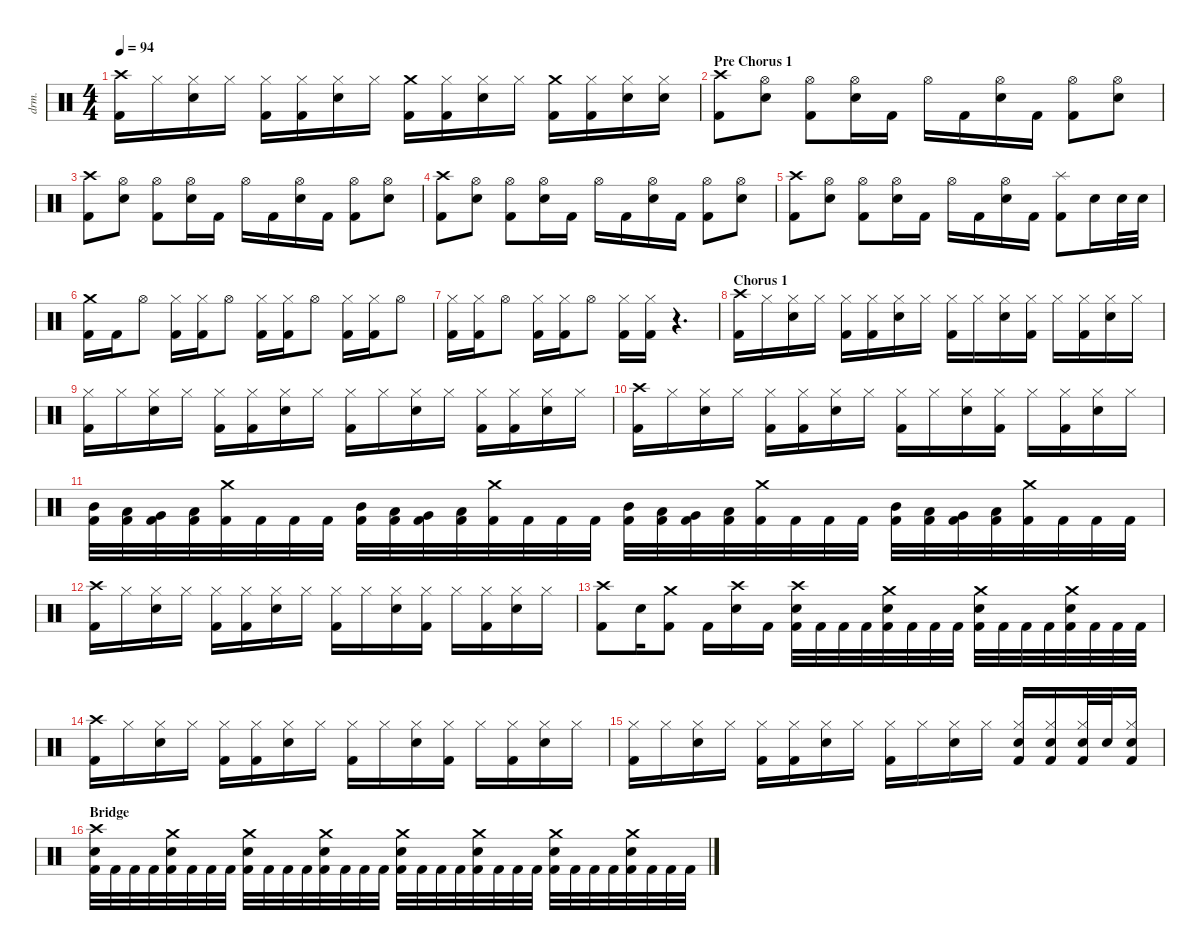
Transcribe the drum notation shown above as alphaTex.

\defaultSystemsLayout 4
\hideDynamics
\bracketExtendMode nobrackets
\track ("Drums" "drm.") {instrument percussion}
\staff {score}
\articulation defaults
\ts (4 4)
\tempo 94
\clef neutral
\ks c
("Crash high (hit)" "Kick (hit) 2").16{dy f} "Hi-Hat (closed)".16 ("Hi-Hat (closed)" "Snare (hit) 2").16 "Hi-Hat (closed)".16 ("Hi-Hat (closed)" "Kick (hit) 2").16 ("Hi-Hat (closed)" "Kick (hit) 2").16 ("Hi-Hat (closed)" "Snare (hit) 2").16 "Hi-Hat (closed)".16 ("Crash medium (hit)" "Kick (hit) 2").16 ("Hi-Hat (closed)" "Kick (hit) 2").16 ("Hi-Hat (closed)" "Snare (hit) 2").16 "Hi-Hat (closed)".16 ("Crash medium (hit)" "Kick (hit) 2").16 ("Hi-Hat (closed)" "Kick (hit) 2").16 ("Hi-Hat (closed)" "Snare (hit) 2").16 ("Hi-Hat (closed)" "Snare (hit) 2").16 |
\section ("" "Pre Chorus 1")
("Crash high (hit)" "Kick (hit) 2").8 ("Hi-Hat (open)" "Snare (hit) 2").8 ("Hi-Hat (open)" "Kick (hit) 2").8 ("Hi-Hat (open)" "Snare (hit) 2").16 "Kick (hit) 2".16 "Hi-Hat (open)".16 "Kick (hit) 2".16 ("Hi-Hat (open)" "Snare (hit) 2").16 "Kick (hit) 2".16 ("Hi-Hat (open)" "Kick (hit) 2").8 ("Hi-Hat (open)" "Snare (hit) 2").8 |
("Crash high (hit)" "Kick (hit) 2").8 ("Hi-Hat (open)" "Snare (hit) 2").8 ("Hi-Hat (open)" "Kick (hit) 2").8 ("Hi-Hat (open)" "Snare (hit) 2").16 "Kick (hit) 2".16 "Hi-Hat (open)".16 "Kick (hit) 2".16 ("Hi-Hat (open)" "Snare (hit) 2").16 "Kick (hit) 2".16 ("Hi-Hat (open)" "Kick (hit) 2").8 ("Hi-Hat (open)" "Snare (hit) 2").8 |
("Crash high (hit)" "Kick (hit) 2").8 ("Hi-Hat (open)" "Snare (hit) 2").8 ("Hi-Hat (open)" "Kick (hit) 2").8 ("Hi-Hat (open)" "Snare (hit) 2").16 "Kick (hit) 2".16 "Hi-Hat (open)".16 "Kick (hit) 2".16 ("Hi-Hat (open)" "Snare (hit) 2").16 "Kick (hit) 2".16 ("Hi-Hat (open)" "Kick (hit) 2").8 ("Hi-Hat (open)" "Snare (hit) 2").8 |
("Crash high (hit)" "Kick (hit) 2").8 ("Hi-Hat (open)" "Snare (hit) 2").8 ("Hi-Hat (open)" "Kick (hit) 2").8 ("Hi-Hat (open)" "Snare (hit) 2").16 "Kick (hit) 2".16 "Hi-Hat (open)".16 "Kick (hit) 2".16 ("Hi-Hat (open)" "Snare (hit) 2").16 "Kick (hit) 2".16 ("Splash (hit)" "Kick (hit) 2").8 "Snare (hit) 2".16 "Snare (hit) 2".32 "Snare (hit) 2".32 |
("Crash medium (hit)" "Kick (hit) 2").16 "Kick (hit) 2".16 "Hi-Hat (open)".8 ("Hi-Hat (closed)" "Kick (hit) 2").16 ("Hi-Hat (closed)" "Kick (hit) 2").16 "Hi-Hat (open)".8 ("Hi-Hat (closed)" "Kick (hit) 2").16 ("Hi-Hat (closed)" "Kick (hit) 2").16 "Hi-Hat (open)".8 ("Hi-Hat (closed)" "Kick (hit) 2").16 ("Hi-Hat (closed)" "Kick (hit) 2").16 "Hi-Hat (open)".8 |
("Hi-Hat (closed)" "Kick (hit) 2").16 ("Hi-Hat (closed)" "Kick (hit) 2").16 "Hi-Hat (open)".8 ("Hi-Hat (closed)" "Kick (hit) 2").16 ("Hi-Hat (closed)" "Kick (hit) 2").16 "Hi-Hat (open)".8 ("Hi-Hat (closed)" "Kick (hit) 2").16 ("Hi-Hat (closed)" "Kick (hit) 2").16 r.4{d} |
\section ("" "Chorus 1")
("Crash high (hit)" "Kick (hit) 2").16 "Hi-Hat (closed)".16 ("Hi-Hat (closed)" "Snare (hit) 2").16 "Hi-Hat (closed)".16 ("Hi-Hat (closed)" "Kick (hit) 2").16 ("Hi-Hat (closed)" "Kick (hit) 2").16 ("Hi-Hat (closed)" "Snare (hit) 2").16 "Hi-Hat (closed)".16 ("Hi-Hat (closed)" "Kick (hit) 2").16 "Hi-Hat (closed)".16 ("Hi-Hat (closed)" "Snare (hit) 2").16 ("Hi-Hat (closed)" "Kick (hit) 2").16 "Hi-Hat (closed)".16 ("Hi-Hat (closed)" "Kick (hit) 2").16 ("Hi-Hat (closed)" "Snare (hit) 2").16 "Hi-Hat (closed)".16 |
("Hi-Hat (closed)" "Kick (hit) 2").16 "Hi-Hat (closed)".16 ("Hi-Hat (closed)" "Snare (hit) 2").16 "Hi-Hat (closed)".16 ("Hi-Hat (closed)" "Kick (hit) 2").16 ("Hi-Hat (closed)" "Kick (hit) 2").16 ("Hi-Hat (closed)" "Snare (hit) 2").16 "Hi-Hat (closed)".16 ("Hi-Hat (closed)" "Kick (hit) 2").16 "Hi-Hat (closed)".16 ("Hi-Hat (closed)" "Snare (hit) 2").16 "Hi-Hat (closed)".16 ("Hi-Hat (closed)" "Kick (hit) 2").16 ("Hi-Hat (closed)" "Kick (hit) 2").16 ("Hi-Hat (closed)" "Snare (hit) 2").16 "Hi-Hat (closed)".16 |
("Crash high (hit)" "Kick (hit) 2").16 "Hi-Hat (closed)".16 ("Hi-Hat (closed)" "Snare (hit) 2").16 "Hi-Hat (closed)".16 ("Hi-Hat (closed)" "Kick (hit) 2").16 ("Hi-Hat (closed)" "Kick (hit) 2").16 ("Hi-Hat (closed)" "Snare (hit) 2").16 "Hi-Hat (closed)".16 ("Hi-Hat (closed)" "Kick (hit) 2").16 "Hi-Hat (closed)".16 ("Hi-Hat (closed)" "Snare (hit) 2").16 ("Hi-Hat (closed)" "Kick (hit) 2").16 "Hi-Hat (closed)".16 ("Hi-Hat (closed)" "Kick (hit) 2").16 ("Hi-Hat (closed)" "Snare (hit) 2").16 "Hi-Hat (closed)".16 |
("Mid Tom (hit)" "Kick (hit) 2").32 ("Low Tom (hit)" "Kick (hit) 2").32 ("Very Low Tom (hit)" "Kick (hit) 2").32 ("Low Floor Tom (hit)" "Kick (hit) 2").32 ("Crash medium (hit)" "Kick (hit) 2").32 "Kick (hit) 2".32 "Kick (hit) 2".32 "Kick (hit) 2".32 ("Mid Tom (hit)" "Kick (hit) 2").32 ("Low Tom (hit)" "Kick (hit) 2").32 ("Very Low Tom (hit)" "Kick (hit) 2").32 ("Low Floor Tom (hit)" "Kick (hit) 2").32 ("Crash medium (hit)" "Kick (hit) 2").32 "Kick (hit) 2".32 "Kick (hit) 2".32 "Kick (hit) 2".32 ("Mid Tom (hit)" "Kick (hit) 2").32 ("Low Tom (hit)" "Kick (hit) 2").32 ("Very Low Tom (hit)" "Kick (hit) 2").32 ("Low Floor Tom (hit)" "Kick (hit) 2").32 ("Crash medium (hit)" "Kick (hit) 2").32 "Kick (hit) 2".32 "Kick (hit) 2".32 "Kick (hit) 2".32 ("Mid Tom (hit)" "Kick (hit) 2").32 ("Low Tom (hit)" "Kick (hit) 2").32 ("Very Low Tom (hit)" "Kick (hit) 2").32 ("Low Floor Tom (hit)" "Kick (hit) 2").32 ("Crash medium (hit)" "Kick (hit) 2").32 "Kick (hit) 2".32 "Kick (hit) 2".32 "Kick (hit) 2".32 |
("Crash high (hit)" "Kick (hit) 2").16 "Hi-Hat (closed)".16 ("Hi-Hat (closed)" "Snare (hit) 2").16 "Hi-Hat (closed)".16 ("Hi-Hat (closed)" "Kick (hit) 2").16 ("Hi-Hat (closed)" "Kick (hit) 2").16 ("Hi-Hat (closed)" "Snare (hit) 2").16 "Hi-Hat (closed)".16 ("Hi-Hat (closed)" "Kick (hit) 2").16 "Hi-Hat (closed)".16 ("Hi-Hat (closed)" "Snare (hit) 2").16 ("Hi-Hat (closed)" "Kick (hit) 2").16 "Hi-Hat (closed)".16 ("Hi-Hat (closed)" "Kick (hit) 2").16 ("Hi-Hat (closed)" "Snare (hit) 2").16 "Hi-Hat (closed)".16 |
("Crash high (hit)" "Kick (hit) 2").8 "Snare (hit) 2".16 ("Crash medium (hit)" "Kick (hit) 2").8 "Kick (hit) 2".16 ("Crash high (hit)" "Snare (hit) 2").16 "Kick (hit) 2".16 ("Crash high (hit)" "Snare (hit) 2" "Kick (hit) 2").32 "Kick (hit) 2".32 "Kick (hit) 2".32 "Kick (hit) 2".32 ("Crash medium (hit)" "Snare (hit) 2" "Kick (hit) 2").32 "Kick (hit) 2".32 "Kick (hit) 2".32 "Kick (hit) 2".32 ("Crash medium (hit)" "Snare (hit) 2" "Kick (hit) 2").32 "Kick (hit) 2".32 "Kick (hit) 2".32 "Kick (hit) 2".32 ("Crash medium (hit)" "Snare (hit) 2" "Kick (hit) 2").32 "Kick (hit) 2".32 "Kick (hit) 2".32 "Kick (hit) 2".32 |
("Crash high (hit)" "Kick (hit) 2").16 "Hi-Hat (closed)".16 ("Hi-Hat (closed)" "Snare (hit) 2").16 "Hi-Hat (closed)".16 ("Hi-Hat (closed)" "Kick (hit) 2").16 ("Hi-Hat (closed)" "Kick (hit) 2").16 ("Hi-Hat (closed)" "Snare (hit) 2").16 "Hi-Hat (closed)".16 ("Hi-Hat (closed)" "Kick (hit) 2").16 "Hi-Hat (closed)".16 ("Hi-Hat (closed)" "Snare (hit) 2").16 ("Hi-Hat (closed)" "Kick (hit) 2").16 "Hi-Hat (closed)".16 ("Hi-Hat (closed)" "Kick (hit) 2").16 ("Hi-Hat (closed)" "Snare (hit) 2").16 "Hi-Hat (closed)".16 |
("Hi-Hat (closed)" "Kick (hit) 2").16 "Hi-Hat (closed)".16 ("Hi-Hat (closed)" "Snare (hit) 2").16 "Hi-Hat (closed)".16 ("Hi-Hat (closed)" "Kick (hit) 2").16 ("Hi-Hat (closed)" "Kick (hit) 2").16 ("Hi-Hat (closed)" "Snare (hit) 2").16 "Hi-Hat (closed)".16 ("Hi-Hat (closed)" "Kick (hit) 2").16 "Hi-Hat (closed)".16 ("Hi-Hat (closed)" "Snare (hit) 2").16 "Hi-Hat (closed)".16 ("Hi-Hat (closed)" "Snare (hit) 2" "Kick (hit) 2").16 ("Hi-Hat (closed)" "Snare (hit) 2" "Kick (hit) 2").16 ("Hi-Hat (closed)" "Snare (hit) 2" "Kick (hit) 2").32 "Snare (hit) 2".32 ("Hi-Hat (closed)" "Snare (hit) 2" "Kick (hit) 2").16 |
\section ("" "Bridge")
("Crash high (hit)" "Snare (hit) 2" "Kick (hit) 2").32 "Kick (hit) 2".32 "Kick (hit) 2".32 "Kick (hit) 2".32 ("Crash medium (hit)" "Snare (hit) 2" "Kick (hit) 2").32 "Kick (hit) 2".32 "Kick (hit) 2".32 "Kick (hit) 2".32 ("Crash medium (hit)" "Snare (hit) 2" "Kick (hit) 2").32 "Kick (hit) 2".32 "Kick (hit) 2".32 "Kick (hit) 2".32 ("Crash medium (hit)" "Snare (hit) 2" "Kick (hit) 2").32 "Kick (hit) 2".32 "Kick (hit) 2".32 "Kick (hit) 2".32 ("Crash medium (hit)" "Snare (hit) 2" "Kick (hit) 2").32 "Kick (hit) 2".32 "Kick (hit) 2".32 "Kick (hit) 2".32 ("Crash medium (hit)" "Snare (hit) 2" "Kick (hit) 2").32 "Kick (hit) 2".32 "Kick (hit) 2".32 "Kick (hit) 2".32 ("Crash medium (hit)" "Snare (hit) 2" "Kick (hit) 2").32 "Kick (hit) 2".32 "Kick (hit) 2".32 "Kick (hit) 2".32 ("Crash medium (hit)" "Snare (hit) 2" "Kick (hit) 2").32 "Kick (hit) 2".32 "Kick (hit) 2".32 "Kick (hit) 2".32
